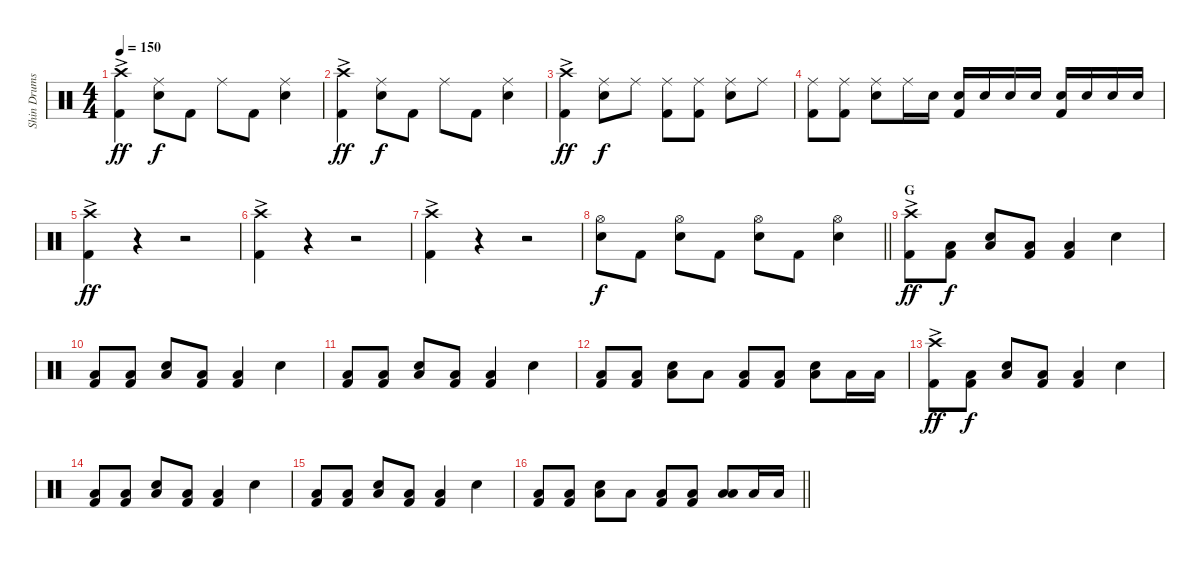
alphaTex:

\track ("Shin Drums" "Shin Drums") {instrument percussion}
\staff {score}
\articulation defaults
\ts (4 4)
\tempo 150
\clef neutral
\ks c
("Crash high (hit)"{ac} "Kick (hit) 2").4{dy ff} ("Ride (middle)" "Snare (hit) 2").8{dy f} "Kick (hit) 2".8 "Ride (middle)".8 "Kick (hit) 2".8 ("Ride (middle)" "Snare (hit) 2").4 |
("Crash high (hit)"{ac} "Kick (hit) 2").4{dy ff} ("Ride (middle)" "Snare (hit) 2").8{dy f} "Kick (hit) 2".8 "Ride (middle)".8 "Kick (hit) 2".8 ("Ride (middle)" "Snare (hit) 2").4 |
("Crash high (hit)"{ac} "Kick (hit) 2").4{dy ff} ("Ride (middle)" "Snare (hit) 2").8{dy f} "Ride (middle)".8 ("Ride (middle)" "Kick (hit) 2").8 ("Ride (middle)" "Kick (hit) 2").8 ("Ride (middle)" "Snare (hit) 2").8 "Ride (middle)".8 |
("Ride (middle)" "Kick (hit) 2").8 ("Ride (middle)" "Kick (hit) 2").8 ("Ride (middle)" "Snare (hit) 2").8 "Ride (middle)".16 "Snare (hit) 2".16 ("Snare (hit) 2" "Kick (hit) 2").16 "Snare (hit) 2".16 "Snare (hit) 2".16 "Snare (hit) 2".16 ("Snare (hit) 2" "Kick (hit) 2").16 "Snare (hit) 2".16 "Snare (hit) 2".16 "Snare (hit) 2".16 |
("Crash high (hit)"{ac} "Kick (hit) 2").4{dy ff} r.4 r.2 |
("Crash high (hit)"{ac} "Kick (hit) 2").4 r.4 r.2 |
("Crash high (hit)"{ac} "Kick (hit) 2").4 r.4 r.2 |
\barLineRight lightlight
("Hi-Hat (open)" "Snare (hit) 2").8{dy f} "Kick (hit) 2".8 ("Hi-Hat (open)" "Snare (hit) 2").8 "Kick (hit) 2".8 ("Hi-Hat (open)" "Snare (hit) 2").8 "Kick (hit) 2".8 ("Hi-Hat (open)" "Snare (hit) 2").4 |
\section ("" "G")
("Crash high (hit)"{ac} "Kick (hit) 2").8{dy ff} ("Low Floor Tom (hit)" "Kick (hit) 2").8{dy f} ("Snare (hit) 2" "Low Floor Tom (hit)").8 ("Low Floor Tom (hit)" "Kick (hit) 2").8 ("Low Floor Tom (hit)" "Kick (hit) 2").4 "Snare (hit) 2".4 |
("Low Floor Tom (hit)" "Kick (hit) 2").8 ("Low Floor Tom (hit)" "Kick (hit) 2").8 ("Snare (hit) 2" "Low Floor Tom (hit)").8 ("Low Floor Tom (hit)" "Kick (hit) 2").8 ("Low Floor Tom (hit)" "Kick (hit) 2").4 "Snare (hit) 2".4 |
("Low Floor Tom (hit)" "Kick (hit) 2").8 ("Low Floor Tom (hit)" "Kick (hit) 2").8 ("Snare (hit) 2" "Low Floor Tom (hit)").8 ("Low Floor Tom (hit)" "Kick (hit) 2").8 ("Low Floor Tom (hit)" "Kick (hit) 2").4 "Snare (hit) 2".4 |
("Low Floor Tom (hit)" "Kick (hit) 2").8 ("Low Floor Tom (hit)" "Kick (hit) 2").8 ("Snare (hit) 2" "Low Floor Tom (hit)").8 "Low Floor Tom (hit)".8 ("Low Floor Tom (hit)" "Kick (hit) 2").8 ("Low Floor Tom (hit)" "Kick (hit) 2").8 ("Snare (hit) 2" "Low Floor Tom (hit)").8 "Low Floor Tom (hit)".16 "Low Floor Tom (hit)".16 |
("Crash high (hit)"{ac} "Kick (hit) 2").8{dy ff} ("Low Floor Tom (hit)" "Kick (hit) 2").8{dy f} ("Snare (hit) 2" "Low Floor Tom (hit)").8 ("Low Floor Tom (hit)" "Kick (hit) 2").8 ("Low Floor Tom (hit)" "Kick (hit) 2").4 "Snare (hit) 2".4 |
("Low Floor Tom (hit)" "Kick (hit) 2").8 ("Low Floor Tom (hit)" "Kick (hit) 2").8 ("Snare (hit) 2" "Low Floor Tom (hit)").8 ("Low Floor Tom (hit)" "Kick (hit) 2").8 ("Low Floor Tom (hit)" "Kick (hit) 2").4 "Snare (hit) 2".4 |
("Low Floor Tom (hit)" "Kick (hit) 2").8 ("Low Floor Tom (hit)" "Kick (hit) 2").8 ("Snare (hit) 2" "Low Floor Tom (hit)").8 ("Low Floor Tom (hit)" "Kick (hit) 2").8 ("Low Floor Tom (hit)" "Kick (hit) 2").4 "Snare (hit) 2".4 |
\barLineRight lightlight
("Low Floor Tom (hit)" "Kick (hit) 2").8 ("Low Floor Tom (hit)" "Kick (hit) 2").8 ("Snare (hit) 2" "Low Floor Tom (hit)").8 "Low Floor Tom (hit)".8 ("Low Floor Tom (hit)" "Kick (hit) 2").8 ("Low Floor Tom (hit)" "Kick (hit) 2").8 ("Low Tom (hit)" "Low Floor Tom (hit)").8 "Low Floor Tom (hit)".16 "Low Floor Tom (hit)".16
